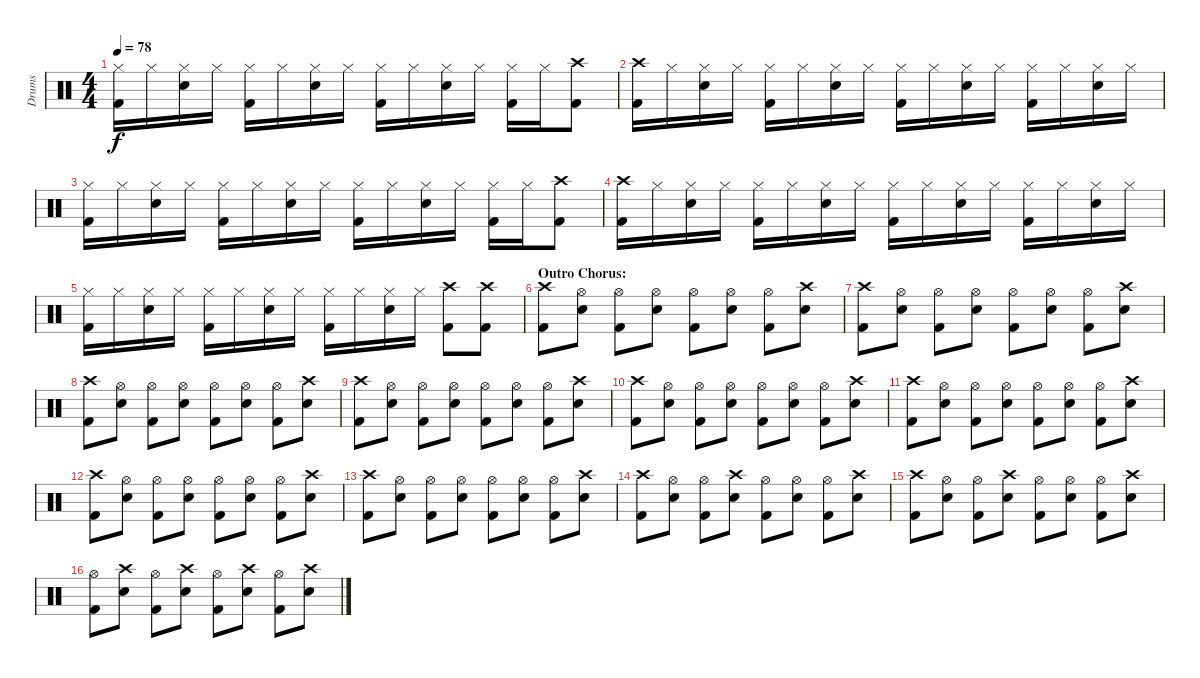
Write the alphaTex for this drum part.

\track ("Drums" "Drums") {instrument percussion}
\staff {score}
\articulation defaults
\ts (4 4)
\tempo 78
\clef neutral
\ks c
("Hi-Hat (closed)" "Kick (hit) 2").16{dy f} "Hi-Hat (closed)".16 ("Hi-Hat (closed)" "Snare (hit) 2").16 "Hi-Hat (closed)".16 ("Hi-Hat (closed)" "Kick (hit) 2").16 "Hi-Hat (closed)".16 ("Hi-Hat (closed)" "Snare (hit) 2").16 "Hi-Hat (closed)".16 ("Hi-Hat (closed)" "Kick (hit) 2").16 "Hi-Hat (closed)".16 ("Hi-Hat (closed)" "Snare (hit) 2").16 "Hi-Hat (closed)".16 ("Hi-Hat (closed)" "Kick (hit) 2").16 "Hi-Hat (closed)".16 ("Crash high (hit)" "Kick (hit) 2").8 |
("Crash high (hit)" "Kick (hit) 2").16 "Hi-Hat (closed)".16 ("Hi-Hat (closed)" "Snare (hit) 2").16 "Hi-Hat (closed)".16 ("Hi-Hat (closed)" "Kick (hit) 2").16 "Hi-Hat (closed)".16 ("Hi-Hat (closed)" "Snare (hit) 2").16 "Hi-Hat (closed)".16 ("Hi-Hat (closed)" "Kick (hit) 2").16 "Hi-Hat (closed)".16 ("Hi-Hat (closed)" "Snare (hit) 2").16 "Hi-Hat (closed)".16 ("Hi-Hat (closed)" "Kick (hit) 2").16 "Hi-Hat (closed)".16 ("Hi-Hat (closed)" "Snare (hit) 2").16 "Hi-Hat (closed)".16 |
("Hi-Hat (closed)" "Kick (hit) 2").16 "Hi-Hat (closed)".16 ("Hi-Hat (closed)" "Snare (hit) 2").16 "Hi-Hat (closed)".16 ("Hi-Hat (closed)" "Kick (hit) 2").16 "Hi-Hat (closed)".16 ("Hi-Hat (closed)" "Snare (hit) 2").16 "Hi-Hat (closed)".16 ("Hi-Hat (closed)" "Kick (hit) 2").16 "Hi-Hat (closed)".16 ("Hi-Hat (closed)" "Snare (hit) 2").16 "Hi-Hat (closed)".16 ("Hi-Hat (closed)" "Kick (hit) 2").16 "Hi-Hat (closed)".16 ("Crash high (hit)" "Kick (hit) 2").8 |
("Crash high (hit)" "Kick (hit) 2").16 "Hi-Hat (closed)".16 ("Hi-Hat (closed)" "Snare (hit) 2").16 "Hi-Hat (closed)".16 ("Hi-Hat (closed)" "Kick (hit) 2").16 "Hi-Hat (closed)".16 ("Hi-Hat (closed)" "Snare (hit) 2").16 "Hi-Hat (closed)".16 ("Hi-Hat (closed)" "Kick (hit) 2").16 "Hi-Hat (closed)".16 ("Hi-Hat (closed)" "Snare (hit) 2").16 "Hi-Hat (closed)".16 ("Hi-Hat (closed)" "Kick (hit) 2").16 "Hi-Hat (closed)".16 ("Hi-Hat (closed)" "Snare (hit) 2").16 "Hi-Hat (closed)".16 |
("Hi-Hat (closed)" "Kick (hit) 2").16 "Hi-Hat (closed)".16 ("Hi-Hat (closed)" "Snare (hit) 2").16 "Hi-Hat (closed)".16 ("Hi-Hat (closed)" "Kick (hit) 2").16 "Hi-Hat (closed)".16 ("Hi-Hat (closed)" "Snare (hit) 2").16 "Hi-Hat (closed)".16 ("Hi-Hat (closed)" "Kick (hit) 2").16 "Hi-Hat (closed)".16 ("Hi-Hat (closed)" "Snare (hit) 2").16 "Hi-Hat (closed)".16 ("Crash high (hit)" "Kick (hit) 2").8 ("Crash high (hit)" "Kick (hit) 2").8 |
\section ("" "Outro Chorus:")
("Crash high (hit)" "Kick (hit) 2").8 ("Hi-Hat (open)" "Snare (hit) 2").8 ("Hi-Hat (open)" "Kick (hit) 2").8 ("Hi-Hat (open)" "Snare (hit) 2").8 ("Hi-Hat (open)" "Kick (hit) 2").8 ("Hi-Hat (open)" "Snare (hit) 2").8 ("Hi-Hat (open)" "Kick (hit) 2").8 ("Crash high (hit)" "Snare (hit) 2").8 |
("Crash high (hit)" "Kick (hit) 2").8 ("Hi-Hat (open)" "Snare (hit) 2").8 ("Hi-Hat (open)" "Kick (hit) 2").8 ("Hi-Hat (open)" "Snare (hit) 2").8 ("Hi-Hat (open)" "Kick (hit) 2").8 ("Hi-Hat (open)" "Snare (hit) 2").8 ("Hi-Hat (open)" "Kick (hit) 2").8 ("Crash high (hit)" "Snare (hit) 2").8 |
("Crash high (hit)" "Kick (hit) 2").8 ("Hi-Hat (open)" "Snare (hit) 2").8 ("Hi-Hat (open)" "Kick (hit) 2").8 ("Hi-Hat (open)" "Snare (hit) 2").8 ("Hi-Hat (open)" "Kick (hit) 2").8 ("Hi-Hat (open)" "Snare (hit) 2").8 ("Hi-Hat (open)" "Kick (hit) 2").8 ("Crash high (hit)" "Snare (hit) 2").8 |
("Crash high (hit)" "Kick (hit) 2").8 ("Hi-Hat (open)" "Snare (hit) 2").8 ("Hi-Hat (open)" "Kick (hit) 2").8 ("Hi-Hat (open)" "Snare (hit) 2").8 ("Hi-Hat (open)" "Kick (hit) 2").8 ("Hi-Hat (open)" "Snare (hit) 2").8 ("Hi-Hat (open)" "Kick (hit) 2").8 ("Crash high (hit)" "Snare (hit) 2").8 |
("Crash high (hit)" "Kick (hit) 2").8 ("Hi-Hat (open)" "Snare (hit) 2").8 ("Hi-Hat (open)" "Kick (hit) 2").8 ("Hi-Hat (open)" "Snare (hit) 2").8 ("Hi-Hat (open)" "Kick (hit) 2").8 ("Hi-Hat (open)" "Snare (hit) 2").8 ("Hi-Hat (open)" "Kick (hit) 2").8 ("Crash high (hit)" "Snare (hit) 2").8 |
("Crash high (hit)" "Kick (hit) 2").8 ("Hi-Hat (open)" "Snare (hit) 2").8 ("Hi-Hat (open)" "Kick (hit) 2").8 ("Hi-Hat (open)" "Snare (hit) 2").8 ("Hi-Hat (open)" "Kick (hit) 2").8 ("Hi-Hat (open)" "Snare (hit) 2").8 ("Hi-Hat (open)" "Kick (hit) 2").8 ("Crash high (hit)" "Snare (hit) 2").8 |
("Crash high (hit)" "Kick (hit) 2").8 ("Hi-Hat (open)" "Snare (hit) 2").8 ("Hi-Hat (open)" "Kick (hit) 2").8 ("Hi-Hat (open)" "Snare (hit) 2").8 ("Hi-Hat (open)" "Kick (hit) 2").8 ("Hi-Hat (open)" "Snare (hit) 2").8 ("Hi-Hat (open)" "Kick (hit) 2").8 ("Crash high (hit)" "Snare (hit) 2").8 |
("Crash high (hit)" "Kick (hit) 2").8 ("Hi-Hat (open)" "Snare (hit) 2").8 ("Hi-Hat (open)" "Kick (hit) 2").8 ("Hi-Hat (open)" "Snare (hit) 2").8 ("Hi-Hat (open)" "Kick (hit) 2").8 ("Hi-Hat (open)" "Snare (hit) 2").8 ("Hi-Hat (open)" "Kick (hit) 2").8 ("Crash high (hit)" "Snare (hit) 2").8 |
("Crash high (hit)" "Kick (hit) 2").8 ("Hi-Hat (open)" "Snare (hit) 2").8 ("Hi-Hat (open)" "Kick (hit) 2").8 ("Crash high (hit)" "Snare (hit) 2").8 ("Hi-Hat (open)" "Kick (hit) 2").8 ("Hi-Hat (open)" "Snare (hit) 2").8 ("Hi-Hat (open)" "Kick (hit) 2").8 ("Crash high (hit)" "Snare (hit) 2").8 |
("Crash high (hit)" "Kick (hit) 2").8 ("Hi-Hat (open)" "Snare (hit) 2").8 ("Hi-Hat (open)" "Kick (hit) 2").8 ("Crash high (hit)" "Snare (hit) 2").8 ("Hi-Hat (open)" "Kick (hit) 2").8 ("Hi-Hat (open)" "Snare (hit) 2").8 ("Hi-Hat (open)" "Kick (hit) 2").8 ("Crash high (hit)" "Snare (hit) 2").8 |
("Hi-Hat (open)" "Kick (hit) 2").8 ("Crash high (hit)" "Snare (hit) 2").8 ("Hi-Hat (open)" "Kick (hit) 2").8 ("Crash high (hit)" "Snare (hit) 2").8 ("Hi-Hat (open)" "Kick (hit) 2").8 ("Crash high (hit)" "Snare (hit) 2").8 ("Hi-Hat (open)" "Kick (hit) 2").8 ("Crash high (hit)" "Snare (hit) 2").8
